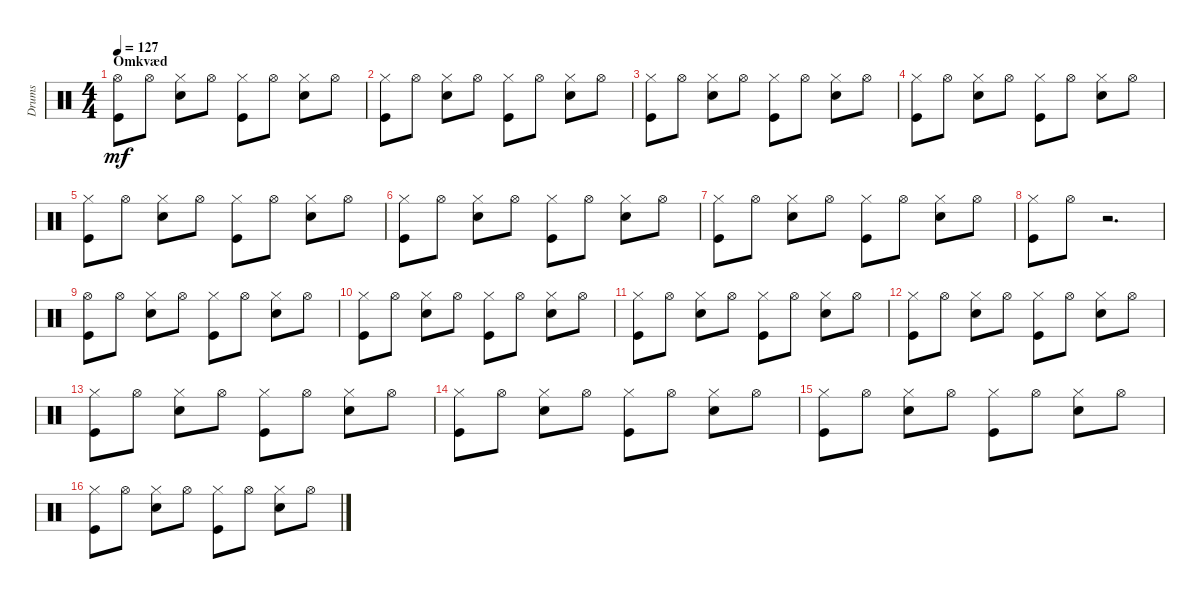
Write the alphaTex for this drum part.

\track ("Drums" "Drums") {instrument percussion}
\staff {score}
\articulation defaults
\ts (4 4)
\section ("" "Omkvæd")
\tempo 127
\clef neutral
\ks c
("Kick (hit)" "Hi-Hat (open)").8{dy mf} "Hi-Hat (open)".8 ("Hi-Hat (closed)" "Snare (hit) 2").8 "Hi-Hat (open)".8 ("Hi-Hat (closed)" "Kick (hit)").8 "Hi-Hat (open)".8 ("Hi-Hat (closed)" "Snare (hit) 2").8 "Hi-Hat (open)".8 |
("Kick (hit)" "Hi-Hat (closed)").8 "Hi-Hat (open)".8 ("Hi-Hat (closed)" "Snare (hit) 2").8 "Hi-Hat (open)".8 ("Hi-Hat (closed)" "Kick (hit)").8 "Hi-Hat (open)".8 ("Hi-Hat (closed)" "Snare (hit) 2").8 "Hi-Hat (open)".8 |
("Kick (hit)" "Hi-Hat (closed)").8 "Hi-Hat (open)".8 ("Hi-Hat (closed)" "Snare (hit) 2").8 "Hi-Hat (open)".8 ("Hi-Hat (closed)" "Kick (hit)").8 "Hi-Hat (open)".8 ("Hi-Hat (closed)" "Snare (hit) 2").8 "Hi-Hat (open)".8 |
("Kick (hit)" "Hi-Hat (closed)").8 "Hi-Hat (open)".8 ("Hi-Hat (closed)" "Snare (hit) 2").8 "Hi-Hat (open)".8 ("Hi-Hat (closed)" "Kick (hit)").8 "Hi-Hat (open)".8 ("Hi-Hat (closed)" "Snare (hit) 2").8 "Hi-Hat (open)".8 |
("Kick (hit)" "Hi-Hat (closed)").8 "Hi-Hat (open)".8 ("Hi-Hat (closed)" "Snare (hit) 2").8 "Hi-Hat (open)".8 ("Hi-Hat (closed)" "Kick (hit)").8 "Hi-Hat (open)".8 ("Hi-Hat (closed)" "Snare (hit) 2").8 "Hi-Hat (open)".8 |
("Kick (hit)" "Hi-Hat (closed)").8 "Hi-Hat (open)".8 ("Hi-Hat (closed)" "Snare (hit) 2").8 "Hi-Hat (open)".8 ("Hi-Hat (closed)" "Kick (hit)").8 "Hi-Hat (open)".8 ("Hi-Hat (closed)" "Snare (hit) 2").8 "Hi-Hat (open)".8 |
("Kick (hit)" "Hi-Hat (closed)").8 "Hi-Hat (open)".8 ("Hi-Hat (closed)" "Snare (hit) 2").8 "Hi-Hat (open)".8 ("Hi-Hat (closed)" "Kick (hit)").8 "Hi-Hat (open)".8 ("Hi-Hat (closed)" "Snare (hit) 2").8 "Hi-Hat (open)".8 |
("Kick (hit)" "Hi-Hat (closed)").8 "Hi-Hat (open)".8 r.2{d} |
("Kick (hit)" "Hi-Hat (open)").8 "Hi-Hat (open)".8 ("Hi-Hat (closed)" "Snare (hit) 2").8 "Hi-Hat (open)".8 ("Hi-Hat (closed)" "Kick (hit)").8 "Hi-Hat (open)".8 ("Hi-Hat (closed)" "Snare (hit) 2").8 "Hi-Hat (open)".8 |
("Kick (hit)" "Hi-Hat (closed)").8 "Hi-Hat (open)".8 ("Hi-Hat (closed)" "Snare (hit) 2").8 "Hi-Hat (open)".8 ("Hi-Hat (closed)" "Kick (hit)").8 "Hi-Hat (open)".8 ("Hi-Hat (closed)" "Snare (hit) 2").8 "Hi-Hat (open)".8 |
("Kick (hit)" "Hi-Hat (closed)").8 "Hi-Hat (open)".8 ("Hi-Hat (closed)" "Snare (hit) 2").8 "Hi-Hat (open)".8 ("Hi-Hat (closed)" "Kick (hit)").8 "Hi-Hat (open)".8 ("Hi-Hat (closed)" "Snare (hit) 2").8 "Hi-Hat (open)".8 |
("Kick (hit)" "Hi-Hat (closed)").8 "Hi-Hat (open)".8 ("Hi-Hat (closed)" "Snare (hit) 2").8 "Hi-Hat (open)".8 ("Hi-Hat (closed)" "Kick (hit)").8 "Hi-Hat (open)".8 ("Hi-Hat (closed)" "Snare (hit) 2").8 "Hi-Hat (open)".8 |
("Kick (hit)" "Hi-Hat (closed)").8 "Hi-Hat (open)".8 ("Hi-Hat (closed)" "Snare (hit) 2").8 "Hi-Hat (open)".8 ("Hi-Hat (closed)" "Kick (hit)").8 "Hi-Hat (open)".8 ("Hi-Hat (closed)" "Snare (hit) 2").8 "Hi-Hat (open)".8 |
("Kick (hit)" "Hi-Hat (closed)").8 "Hi-Hat (open)".8 ("Hi-Hat (closed)" "Snare (hit) 2").8 "Hi-Hat (open)".8 ("Hi-Hat (closed)" "Kick (hit)").8 "Hi-Hat (open)".8 ("Hi-Hat (closed)" "Snare (hit) 2").8 "Hi-Hat (open)".8 |
("Kick (hit)" "Hi-Hat (closed)").8 "Hi-Hat (open)".8 ("Hi-Hat (closed)" "Snare (hit) 2").8 "Hi-Hat (open)".8 ("Hi-Hat (closed)" "Kick (hit)").8 "Hi-Hat (open)".8 ("Hi-Hat (closed)" "Snare (hit) 2").8 "Hi-Hat (open)".8 |
("Kick (hit)" "Hi-Hat (closed)").8 "Hi-Hat (open)".8 ("Hi-Hat (closed)" "Snare (hit) 2").8 "Hi-Hat (open)".8 ("Hi-Hat (closed)" "Kick (hit)").8 "Hi-Hat (open)".8 ("Hi-Hat (closed)" "Snare (hit) 2").8 "Hi-Hat (open)".8
